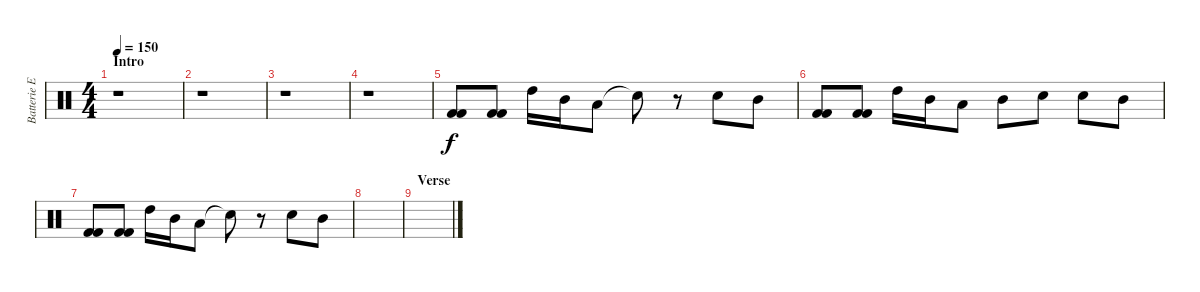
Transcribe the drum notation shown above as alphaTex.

\track ("Batterie Electronique" "Batterie E") {instrument percussion}
\staff {score}
\articulation defaults
\ts (4 4)
\section ("" "Intro")
\tempo 150
\clef neutral
\ks c
r.1{dy f} |
r.1 |
r.1 |
r.1 |
("Kick (hit) 2" "Kick (hit) 2").8 ("Kick (hit) 2" "Kick (hit) 2").8 "High Tom (hit)".16 "Mid Tom (hit)".16 "Low Tom (hit)".8 "Snare (hit)"{t}.8 r.8 "Snare (hit) 2".8 "Mid Tom (hit)".8 |
("Kick (hit) 2" "Kick (hit) 2").8 ("Kick (hit) 2" "Kick (hit) 2").8 "High Tom (hit)".16 "Mid Tom (hit)".16 "Low Tom (hit)".8 "Mid Tom (hit)".8 "Snare (hit) 2".8 "Snare (hit) 2".8 "Mid Tom (hit)".8 |
("Kick (hit) 2" "Kick (hit) 2").8 ("Kick (hit) 2" "Kick (hit) 2").8 "High Tom (hit)".16 "Mid Tom (hit)".16 "Low Tom (hit)".8 "Snare (hit)"{t}.8 r.8 "Snare (hit) 2".8 "Mid Tom (hit)".8 |
|
\section ("" "Verse")
